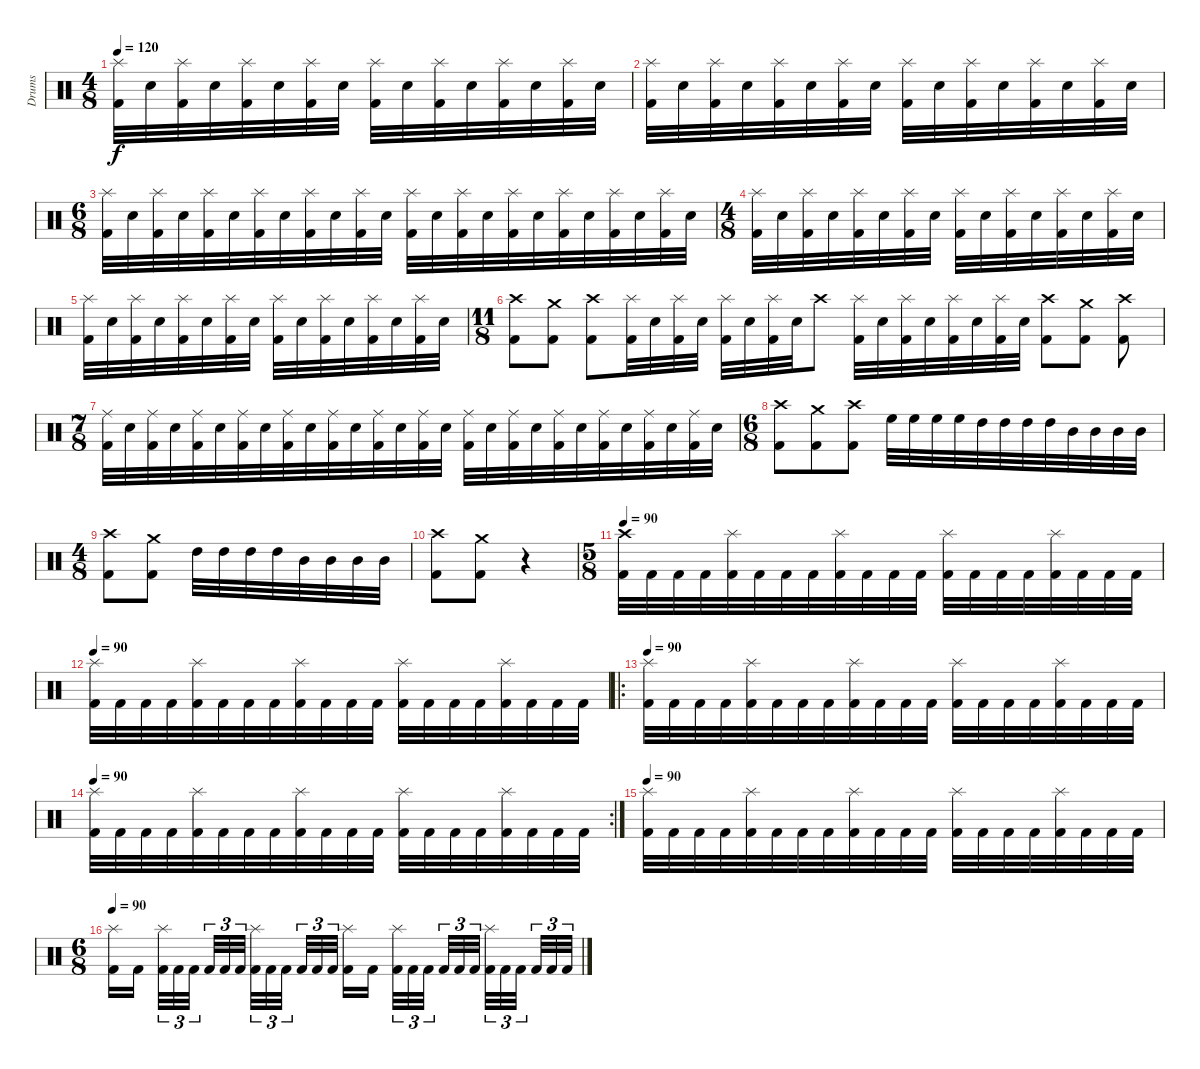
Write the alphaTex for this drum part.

\track ("Drums" "Drums") {instrument percussion}
\staff {score}
\articulation defaults
\ts (4 8)
\tempo 120
\clef neutral
\ks c
("Splash (hit)" "Kick (hit) 2").32{dy f} "Snare (hit) 2".32 ("Splash (hit)" "Kick (hit) 2").32 "Snare (hit) 2".32 ("Splash (hit)" "Kick (hit) 2").32 "Snare (hit) 2".32 ("Splash (hit)" "Kick (hit) 2").32 "Snare (hit) 2".32 ("Splash (hit)" "Kick (hit) 2").32 "Snare (hit) 2".32 ("Splash (hit)" "Kick (hit) 2").32 "Snare (hit) 2".32 ("Splash (hit)" "Kick (hit) 2").32 "Snare (hit) 2".32 ("Splash (hit)" "Kick (hit) 2").32 "Snare (hit) 2".32 |
("Splash (hit)" "Kick (hit) 2").32 "Snare (hit) 2".32 ("Splash (hit)" "Kick (hit) 2").32 "Snare (hit) 2".32 ("Splash (hit)" "Kick (hit) 2").32 "Snare (hit) 2".32 ("Splash (hit)" "Kick (hit) 2").32 "Snare (hit) 2".32 ("Splash (hit)" "Kick (hit) 2").32 "Snare (hit) 2".32 ("Splash (hit)" "Kick (hit) 2").32 "Snare (hit) 2".32 ("Splash (hit)" "Kick (hit) 2").32 "Snare (hit) 2".32 ("Splash (hit)" "Kick (hit) 2").32 "Snare (hit) 2".32 |
\ts (6 8)
("Splash (hit)" "Kick (hit) 2").32 "Snare (hit) 2".32 ("Splash (hit)" "Kick (hit) 2").32 "Snare (hit) 2".32 ("Splash (hit)" "Kick (hit) 2").32 "Snare (hit) 2".32 ("Splash (hit)" "Kick (hit) 2").32 "Snare (hit) 2".32 ("Splash (hit)" "Kick (hit) 2").32 "Snare (hit) 2".32 ("Splash (hit)" "Kick (hit) 2").32 "Snare (hit) 2".32 ("Splash (hit)" "Kick (hit) 2").32 "Snare (hit) 2".32 ("Splash (hit)" "Kick (hit) 2").32 "Snare (hit) 2".32 ("Splash (hit)" "Kick (hit) 2").32 "Snare (hit) 2".32 ("Splash (hit)" "Kick (hit) 2").32 "Snare (hit) 2".32 ("Splash (hit)" "Kick (hit) 2").32 "Snare (hit) 2".32 ("Splash (hit)" "Kick (hit) 2").32 "Snare (hit) 2".32 |
\ts (4 8)
("Splash (hit)" "Kick (hit) 2").32 "Snare (hit) 2".32 ("Splash (hit)" "Kick (hit) 2").32 "Snare (hit) 2".32 ("Splash (hit)" "Kick (hit) 2").32 "Snare (hit) 2".32 ("Splash (hit)" "Kick (hit) 2").32 "Snare (hit) 2".32 ("Splash (hit)" "Kick (hit) 2").32 "Snare (hit) 2".32 ("Splash (hit)" "Kick (hit) 2").32 "Snare (hit) 2".32 ("Splash (hit)" "Kick (hit) 2").32 "Snare (hit) 2".32 ("Splash (hit)" "Kick (hit) 2").32 "Snare (hit) 2".32 |
("Splash (hit)" "Kick (hit) 2").32 "Snare (hit) 2".32 ("Splash (hit)" "Kick (hit) 2").32 "Snare (hit) 2".32 ("Splash (hit)" "Kick (hit) 2").32 "Snare (hit) 2".32 ("Splash (hit)" "Kick (hit) 2").32 "Snare (hit) 2".32 ("Splash (hit)" "Kick (hit) 2").32 "Snare (hit) 2".32 ("Splash (hit)" "Kick (hit) 2").32 "Snare (hit) 2".32 ("Splash (hit)" "Kick (hit) 2").32 "Snare (hit) 2".32 ("Splash (hit)" "Kick (hit) 2").32 "Snare (hit) 2".32 |
\ts (11 8)
("Crash high (hit)" "Kick (hit) 2").8 ("Crash medium (hit)" "Kick (hit) 2").8 ("Crash high (hit)" "Kick (hit) 2").8 ("Splash (hit)" "Kick (hit) 2").32 "Snare (hit) 2".32 ("Splash (hit)" "Kick (hit) 2").32 "Snare (hit) 2".32 ("Splash (hit)" "Kick (hit) 2").32 "Snare (hit) 2".32 ("Splash (hit)" "Kick (hit) 2").32 "Snare (hit) 2".32 "Crash high (hit)".8 ("Splash (hit)" "Kick (hit) 2").32 "Snare (hit) 2".32 ("Splash (hit)" "Kick (hit) 2").32 "Snare (hit) 2".32 ("Splash (hit)" "Kick (hit) 2").32 "Snare (hit) 2".32 ("Splash (hit)" "Kick (hit) 2").32 "Snare (hit) 2".32 ("Crash high (hit)" "Kick (hit) 2").8 ("Crash medium (hit)" "Kick (hit) 2").8 ("Crash high (hit)" "Kick (hit) 2").8 |
\ts (7 8)
("Ride (middle)" "Kick (hit) 2").32 "Snare (hit) 2".32 ("Ride (middle)" "Kick (hit) 2").32 "Snare (hit) 2".32 ("Ride (middle)" "Kick (hit) 2").32 "Snare (hit) 2".32 ("Ride (middle)" "Kick (hit) 2").32 "Snare (hit) 2".32 ("Ride (middle)" "Kick (hit) 2").32 "Snare (hit) 2".32 ("Ride (middle)" "Kick (hit) 2").32 "Snare (hit) 2".32 ("Ride (middle)" "Kick (hit) 2").32 "Snare (hit) 2".32 ("Ride (middle)" "Kick (hit) 2").32 "Snare (hit) 2".32 ("Ride (middle)" "Kick (hit) 2").32 "Snare (hit) 2".32 ("Ride (middle)" "Kick (hit) 2").32 "Snare (hit) 2".32 ("Ride (middle)" "Kick (hit) 2").32 "Snare (hit) 2".32 ("Ride (middle)" "Kick (hit) 2").32 "Snare (hit) 2".32 ("Ride (middle)" "Kick (hit) 2").32 "Snare (hit) 2".32 ("Ride (middle)" "Kick (hit) 2").32 "Snare (hit) 2".32 |
\ts (6 8)
("Crash high (hit)" "Kick (hit) 2").8 ("Crash medium (hit)" "Kick (hit) 2").8 ("Crash high (hit)" "Kick (hit) 2").8 "High Floor Tom (hit)".32 "High Floor Tom (hit)".32 "High Floor Tom (hit)".32 "High Floor Tom (hit)".32 "High Tom (hit)".32 "High Tom (hit)".32 "High Tom (hit)".32 "High Tom (hit)".32 "Mid Tom (hit)".32 "Mid Tom (hit)".32 "Mid Tom (hit)".32 "Mid Tom (hit)".32 |
\ts (4 8)
("Crash high (hit)" "Kick (hit) 2").8 ("Crash medium (hit)" "Kick (hit) 2").8 "High Tom (hit)".32 "High Tom (hit)".32 "High Tom (hit)".32 "High Tom (hit)".32 "Mid Tom (hit)".32 "Mid Tom (hit)".32 "Mid Tom (hit)".32 "Mid Tom (hit)".32 |
("Crash high (hit)" "Kick (hit) 2").8 ("Crash medium (hit)" "Kick (hit) 2").8 r.4 |
\ts (5 8)
\tempo 90
("Crash high (hit)" "Kick (hit) 2").32 "Kick (hit) 2".32 "Kick (hit) 2".32 "Kick (hit) 2".32 ("Splash (hit)" "Kick (hit) 2").32 "Kick (hit) 2".32 "Kick (hit) 2".32 "Kick (hit) 2".32 ("Splash (hit)" "Kick (hit) 2").32 "Kick (hit) 2".32 "Kick (hit) 2".32 "Kick (hit) 2".32 ("Splash (hit)" "Kick (hit) 2").32 "Kick (hit) 2".32 "Kick (hit) 2".32 "Kick (hit) 2".32 ("Splash (hit)" "Kick (hit) 2").32 "Kick (hit) 2".32 "Kick (hit) 2".32 "Kick (hit) 2".32 |
\tempo 90
("Splash (hit)" "Kick (hit) 2").32 "Kick (hit) 2".32 "Kick (hit) 2".32 "Kick (hit) 2".32 ("Splash (hit)" "Kick (hit) 2").32 "Kick (hit) 2".32 "Kick (hit) 2".32 "Kick (hit) 2".32 ("Splash (hit)" "Kick (hit) 2").32 "Kick (hit) 2".32 "Kick (hit) 2".32 "Kick (hit) 2".32 ("Splash (hit)" "Kick (hit) 2").32 "Kick (hit) 2".32 "Kick (hit) 2".32 "Kick (hit) 2".32 ("Splash (hit)" "Kick (hit) 2").32 "Kick (hit) 2".32 "Kick (hit) 2".32 "Kick (hit) 2".32 |
\ro
\tempo 90
("Splash (hit)" "Kick (hit) 2").32 "Kick (hit) 2".32 "Kick (hit) 2".32 "Kick (hit) 2".32 ("Splash (hit)" "Kick (hit) 2").32 "Kick (hit) 2".32 "Kick (hit) 2".32 "Kick (hit) 2".32 ("Splash (hit)" "Kick (hit) 2").32 "Kick (hit) 2".32 "Kick (hit) 2".32 "Kick (hit) 2".32 ("Splash (hit)" "Kick (hit) 2").32 "Kick (hit) 2".32 "Kick (hit) 2".32 "Kick (hit) 2".32 ("Splash (hit)" "Kick (hit) 2").32 "Kick (hit) 2".32 "Kick (hit) 2".32 "Kick (hit) 2".32 |
\rc 2
\tempo 90
("Splash (hit)" "Kick (hit) 2").32 "Kick (hit) 2".32 "Kick (hit) 2".32 "Kick (hit) 2".32 ("Splash (hit)" "Kick (hit) 2").32 "Kick (hit) 2".32 "Kick (hit) 2".32 "Kick (hit) 2".32 ("Splash (hit)" "Kick (hit) 2").32 "Kick (hit) 2".32 "Kick (hit) 2".32 "Kick (hit) 2".32 ("Splash (hit)" "Kick (hit) 2").32 "Kick (hit) 2".32 "Kick (hit) 2".32 "Kick (hit) 2".32 ("Splash (hit)" "Kick (hit) 2").32 "Kick (hit) 2".32 "Kick (hit) 2".32 "Kick (hit) 2".32 |
\tempo 90
("Splash (hit)" "Kick (hit) 2").32 "Kick (hit) 2".32 "Kick (hit) 2".32 "Kick (hit) 2".32 ("Splash (hit)" "Kick (hit) 2").32 "Kick (hit) 2".32 "Kick (hit) 2".32 "Kick (hit) 2".32 ("Splash (hit)" "Kick (hit) 2").32 "Kick (hit) 2".32 "Kick (hit) 2".32 "Kick (hit) 2".32 ("Splash (hit)" "Kick (hit) 2").32 "Kick (hit) 2".32 "Kick (hit) 2".32 "Kick (hit) 2".32 ("Splash (hit)" "Kick (hit) 2").32 "Kick (hit) 2".32 "Kick (hit) 2".32 "Kick (hit) 2".32 |
\ts (6 8)
\tempo 90
("Splash (hit)" "Kick (hit) 2").16 "Kick (hit) 2".16 ("Splash (hit)" "Kick (hit) 2").32{tu (3 2)} "Kick (hit) 2".32{tu (3 2)} "Kick (hit) 2".32{tu (3 2)} "Kick (hit) 2".32{tu (3 2)} "Kick (hit) 2".32{tu (3 2)} "Kick (hit) 2".32{tu (3 2)} ("Splash (hit)" "Kick (hit) 2").32{tu (3 2)} "Kick (hit) 2".32{tu (3 2)} "Kick (hit) 2".32{tu (3 2)} "Kick (hit) 2".32{tu (3 2)} "Kick (hit) 2".32{tu (3 2)} "Kick (hit) 2".32{tu (3 2)} ("Splash (hit)" "Kick (hit) 2").16 "Kick (hit) 2".16 ("Splash (hit)" "Kick (hit) 2").32{tu (3 2)} "Kick (hit) 2".32{tu (3 2)} "Kick (hit) 2".32{tu (3 2)} "Kick (hit) 2".32{tu (3 2)} "Kick (hit) 2".32{tu (3 2)} "Kick (hit) 2".32{tu (3 2)} ("Splash (hit)" "Kick (hit) 2").32{tu (3 2)} "Kick (hit) 2".32{tu (3 2)} "Kick (hit) 2".32{tu (3 2)} "Kick (hit) 2".32{tu (3 2)} "Kick (hit) 2".32{tu (3 2)} "Kick (hit) 2".32{tu (3 2)}
